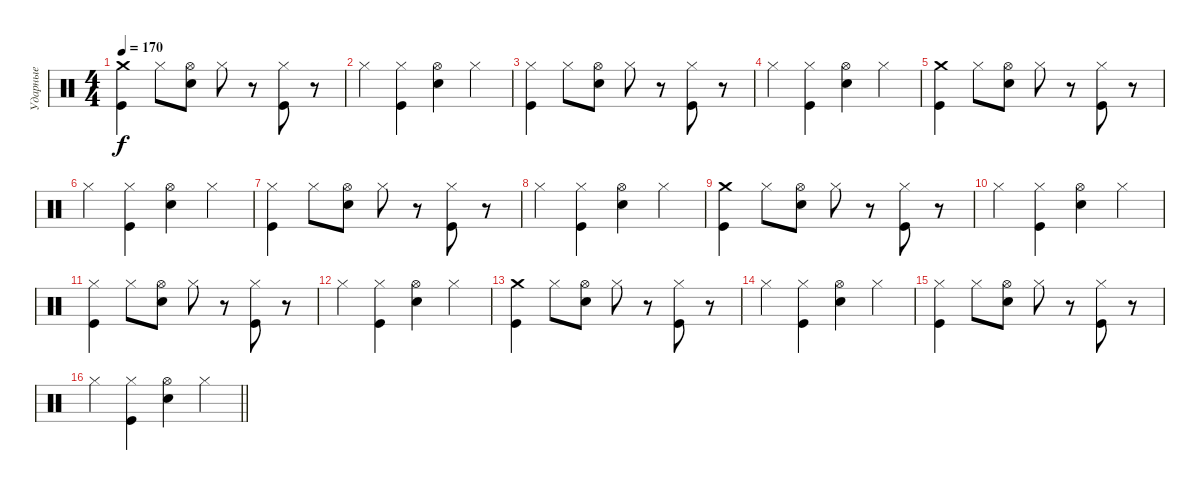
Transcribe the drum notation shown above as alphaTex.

\track ("Ударные" "Ударные") {instrument percussion}
\staff {score}
\articulation defaults
\ts (4 4)
\tempo 170
\clef neutral
\ks c
("Kick (hit)" "Crash medium (hit)").4{dy f} "Hi-Hat (closed)".8 ("Snare (hit) 2" "Hi-Hat (open)").8 "Hi-Hat (closed)".8 r.8 ("Kick (hit)" "Hi-Hat (closed)").8 r.8 |
"Hi-Hat (closed)".4 ("Kick (hit)" "Hi-Hat (closed)").4 ("Snare (hit) 2" "Hi-Hat (open)").4 "Hi-Hat (closed)".4 |
("Kick (hit)" "Hi-Hat (closed)").4 "Hi-Hat (closed)".8 ("Snare (hit) 2" "Hi-Hat (open)").8 "Hi-Hat (closed)".8 r.8 ("Kick (hit)" "Hi-Hat (closed)").8 r.8 |
"Hi-Hat (closed)".4 ("Kick (hit)" "Hi-Hat (closed)").4 ("Snare (hit) 2" "Hi-Hat (open)").4 "Hi-Hat (closed)".4 |
("Kick (hit)" "Crash medium (hit)").4 "Hi-Hat (closed)".8 ("Snare (hit) 2" "Hi-Hat (open)").8 "Hi-Hat (closed)".8 r.8 ("Kick (hit)" "Hi-Hat (closed)").8 r.8 |
"Hi-Hat (closed)".4 ("Kick (hit)" "Hi-Hat (closed)").4 ("Snare (hit) 2" "Hi-Hat (open)").4 "Hi-Hat (closed)".4 |
("Kick (hit)" "Hi-Hat (closed)").4 "Hi-Hat (closed)".8 ("Snare (hit) 2" "Hi-Hat (open)").8 "Hi-Hat (closed)".8 r.8 ("Kick (hit)" "Hi-Hat (closed)").8 r.8 |
"Hi-Hat (closed)".4 ("Kick (hit)" "Hi-Hat (closed)").4 ("Snare (hit) 2" "Hi-Hat (open)").4 "Hi-Hat (closed)".4 |
("Kick (hit)" "Crash medium (hit)").4 "Hi-Hat (closed)".8 ("Snare (hit) 2" "Hi-Hat (open)").8 "Hi-Hat (closed)".8 r.8 ("Kick (hit)" "Hi-Hat (closed)").8 r.8 |
"Hi-Hat (closed)".4 ("Kick (hit)" "Hi-Hat (closed)").4 ("Snare (hit) 2" "Hi-Hat (open)").4 "Hi-Hat (closed)".4 |
("Kick (hit)" "Hi-Hat (closed)").4 "Hi-Hat (closed)".8 ("Snare (hit) 2" "Hi-Hat (open)").8 "Hi-Hat (closed)".8 r.8 ("Kick (hit)" "Hi-Hat (closed)").8 r.8 |
"Hi-Hat (closed)".4 ("Kick (hit)" "Hi-Hat (closed)").4 ("Snare (hit) 2" "Hi-Hat (open)").4 "Hi-Hat (closed)".4 |
("Kick (hit)" "Crash medium (hit)").4 "Hi-Hat (closed)".8 ("Snare (hit) 2" "Hi-Hat (open)").8 "Hi-Hat (closed)".8 r.8 ("Kick (hit)" "Hi-Hat (closed)").8 r.8 |
"Hi-Hat (closed)".4 ("Kick (hit)" "Hi-Hat (closed)").4 ("Snare (hit) 2" "Hi-Hat (open)").4 "Hi-Hat (closed)".4 |
("Kick (hit)" "Hi-Hat (closed)").4 "Hi-Hat (closed)".8 ("Snare (hit) 2" "Hi-Hat (open)").8 "Hi-Hat (closed)".8 r.8 ("Kick (hit)" "Hi-Hat (closed)").8 r.8 |
\barLineRight lightlight "Hi-Hat (closed)".4
("Kick (hit)" "Hi-Hat (closed)").4 ("Snare (hit) 2" "Hi-Hat (open)").4 "Hi-Hat (closed)".4
